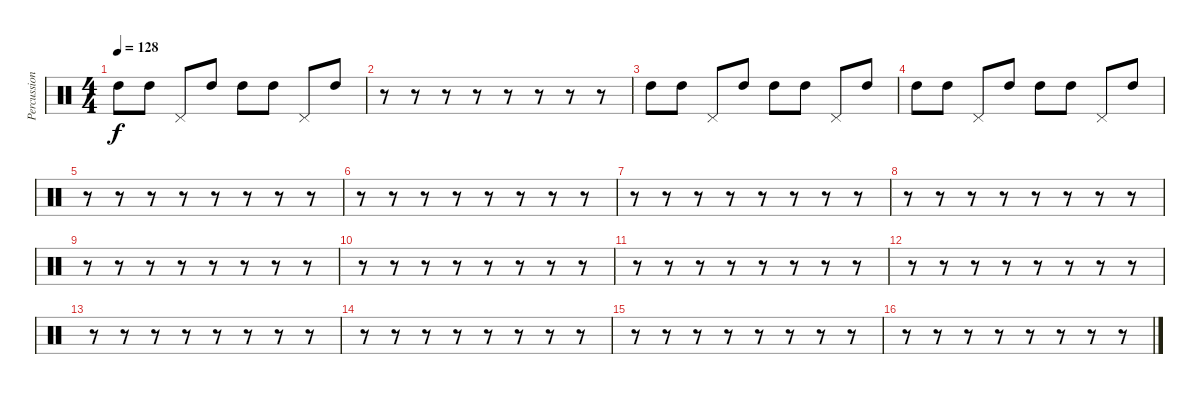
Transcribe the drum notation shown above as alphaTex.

\track ("Percussion" "Percussion") {instrument percussion}
\staff {score}
\articulation defaults
\ts (4 4)
\tempo 128
\clef neutral
\ks c "High Tom (hit)".8{dy f} "High Tom (hit)".8 "Pedal Hi-Hat (hit)".8 "High Tom (hit)".8 "High Tom (hit)".8 "High Tom (hit)".8 "Pedal Hi-Hat (hit)".8 "High Tom (hit)".8
|
r.8 r.8 r.8 r.8 r.8 r.8 r.8 r.8 |
"High Tom (hit)".8 "High Tom (hit)".8 "Pedal Hi-Hat (hit)".8 "High Tom (hit)".8 "High Tom (hit)".8 "High Tom (hit)".8 "Pedal Hi-Hat (hit)".8 "High Tom (hit)".8 |
"High Tom (hit)".8 "High Tom (hit)".8 "Pedal Hi-Hat (hit)".8 "High Tom (hit)".8 "High Tom (hit)".8 "High Tom (hit)".8 "Pedal Hi-Hat (hit)".8 "High Tom (hit)".8 |
r.8 r.8 r.8 r.8 r.8 r.8 r.8 r.8 |
r.8 r.8 r.8 r.8 r.8 r.8 r.8 r.8 |
r.8 r.8 r.8 r.8 r.8 r.8 r.8 r.8 |
r.8 r.8 r.8 r.8 r.8 r.8 r.8 r.8 |
r.8 r.8 r.8 r.8 r.8 r.8 r.8 r.8 |
r.8 r.8 r.8 r.8 r.8 r.8 r.8 r.8 |
r.8 r.8 r.8 r.8 r.8 r.8 r.8 r.8 |
r.8 r.8 r.8 r.8 r.8 r.8 r.8 r.8 |
r.8 r.8 r.8 r.8 r.8 r.8 r.8 r.8 |
r.8 r.8 r.8 r.8 r.8 r.8 r.8 r.8 |
r.8 r.8 r.8 r.8 r.8 r.8 r.8 r.8 |
r.8 r.8 r.8 r.8 r.8 r.8 r.8 r.8
